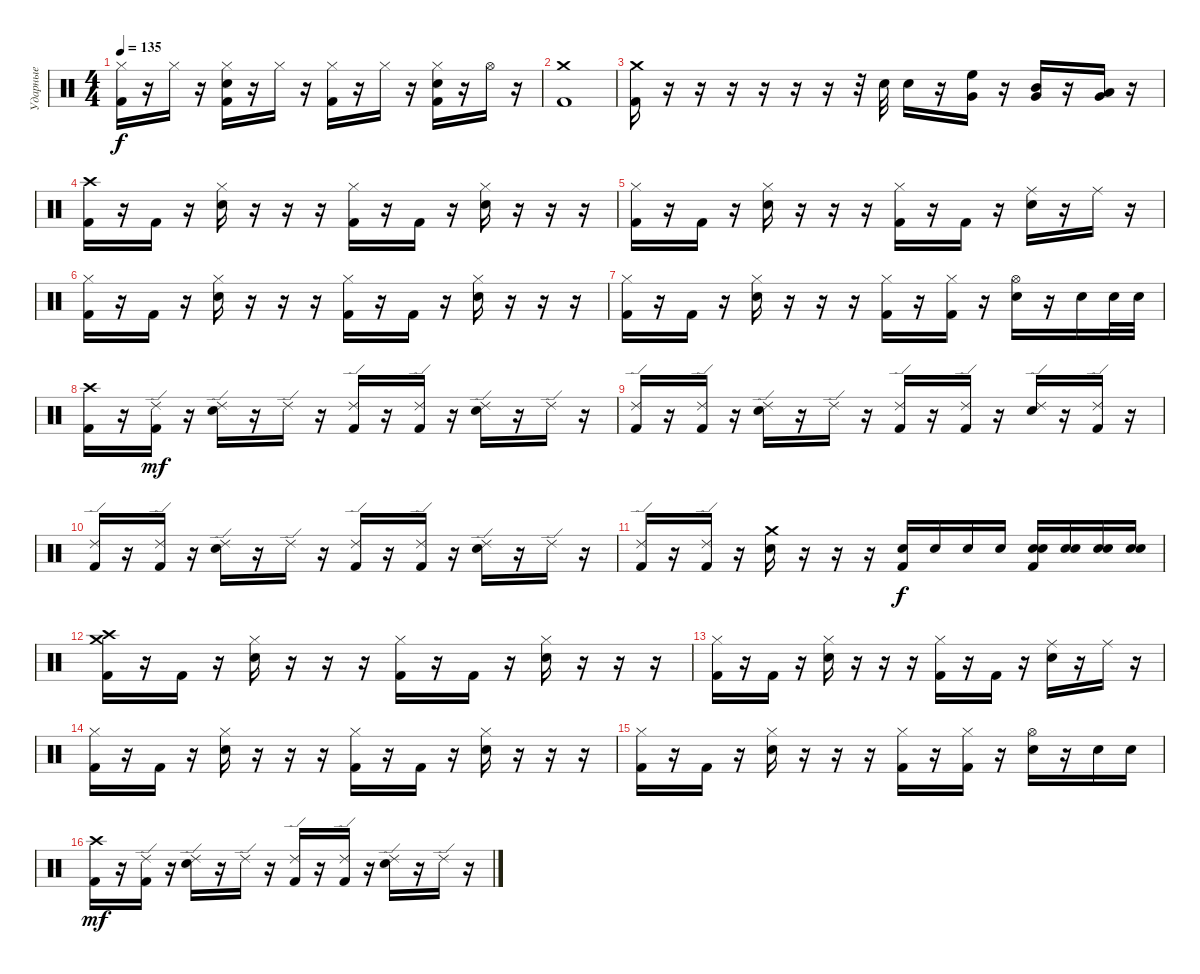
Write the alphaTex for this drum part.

\track ("Ударные" "Ударные") {instrument percussion}
\staff {score}
\articulation defaults
\ts (4 4)
\tempo 135
\clef neutral
\ks c
("Hi-Hat (closed)" "Kick (hit) 2").16{dy f} r.16 "Hi-Hat (closed)".16 r.16 ("Hi-Hat (closed)" "Electric Snare (hit)" "Kick (hit) 2").16 r.16 "Hi-Hat (closed)".16 r.16 ("Hi-Hat (closed)" "Kick (hit) 2").16 r.16 "Hi-Hat (closed)".16 r.16 ("Hi-Hat (closed)" "Electric Snare (hit)" "Kick (hit) 2").16 r.16 "Hi-Hat (open)".16 r.16 |
("Crash medium (hit)" "Kick (hit) 2").1 |
("Crash medium (hit)" "Kick (hit) 2").16 r.16 r.16 r.16 r.16 r.16 r.16 r.32 "Electric Snare (hit)".32 "Electric Snare (hit)".16 r.16 ("High Floor Tom (hit)" "Very Low Tom (hit)").16 r.16 ("Mid Tom (hit)" "Very Low Tom (hit)").16 r.16 ("Low Tom (hit)" "Very Low Tom (hit)").16 r.16 |
("Crash high (hit)" "Kick (hit) 2").16 r.16 "Kick (hit) 2".16 r.16 ("Hi-Hat (closed)" "Electric Snare (hit)").16 r.16 r.16 r.16 ("Hi-Hat (closed)" "Kick (hit) 2").16 r.16 "Kick (hit) 2".16 r.16 ("Hi-Hat (closed)" "Electric Snare (hit)").16 r.16 r.16 r.16 |
("Hi-Hat (closed)" "Kick (hit) 2").16 r.16 "Kick (hit) 2".16 r.16 ("Hi-Hat (closed)" "Electric Snare (hit)").16 r.16 r.16 r.16 ("Hi-Hat (closed)" "Kick (hit) 2").16 r.16 "Kick (hit) 2".16 r.16 ("Ride (middle)" "Electric Snare (hit)").16 r.16 "Ride (middle)".16 r.16 |
("Hi-Hat (closed)" "Kick (hit) 2").16 r.16 "Kick (hit) 2".16 r.16 ("Hi-Hat (closed)" "Electric Snare (hit)").16 r.16 r.16 r.16 ("Hi-Hat (closed)" "Kick (hit) 2").16 r.16 "Kick (hit) 2".16 r.16 ("Hi-Hat (closed)" "Electric Snare (hit)").16 r.16 r.16 r.16 |
("Hi-Hat (closed)" "Kick (hit) 2").16 r.16 "Kick (hit) 2".16 r.16 ("Hi-Hat (closed)" "Electric Snare (hit)").16 r.16 r.16 r.16 ("Hi-Hat (closed)" "Kick (hit) 2").16 r.16 ("Hi-Hat (closed)" "Kick (hit) 2").16 r.16 ("Hi-Hat (open)" "Electric Snare (hit)").16 r.16 "Electric Snare (hit)".16 "Electric Snare (hit)".32 "Electric Snare (hit)".32 |
("Crash high (hit)" "Kick (hit) 2").16 r.16 ("Ride (edge) 2" "Kick (hit) 2").16{dy mf} r.16 ("Ride (edge) 2" "Electric Snare (hit)").16 r.16 "Ride (edge) 2".16 r.16 ("Ride (edge) 2" "Kick (hit) 2").16 r.16 ("Ride (edge) 2" "Kick (hit) 2").16 r.16 ("Ride (edge) 2" "Electric Snare (hit)").16 r.16 "Ride (edge) 2".16 r.16 |
("Ride (edge) 2" "Kick (hit) 2").16 r.16 ("Ride (edge) 2" "Kick (hit) 2").16 r.16 ("Ride (edge) 2" "Electric Snare (hit)").16 r.16 "Ride (edge) 2".16 r.16 ("Ride (edge) 2" "Kick (hit) 2").16 r.16 ("Ride (edge) 2" "Kick (hit) 2").16 r.16 ("Ride (edge) 2" "Electric Snare (hit)").16 r.16 ("Ride (edge) 2" "Kick (hit) 2").16 r.16 |
("Ride (edge) 2" "Kick (hit) 2").16 r.16 ("Ride (edge) 2" "Kick (hit) 2").16 r.16 ("Ride (edge) 2" "Electric Snare (hit)").16 r.16 "Ride (edge) 2".16 r.16 ("Ride (edge) 2" "Kick (hit) 2").16 r.16 ("Ride (edge) 2" "Kick (hit) 2").16 r.16 ("Ride (edge) 2" "Electric Snare (hit)").16 r.16 "Ride (edge) 2".16 r.16 |
("Ride (edge) 2" "Kick (hit) 2").16 r.16 ("Ride (edge) 2" "Kick (hit) 2").16 r.16 ("Crash medium (hit)" "Electric Snare (hit)").16 r.16 r.16 r.16 ("Electric Snare (hit)" "Kick (hit) 2").16{dy f} "Electric Snare (hit)".16 "Electric Snare (hit)".16 "Electric Snare (hit)".16 ("Snare (hit) 2" "Electric Snare (hit)" "Kick (hit) 2").16 ("Snare (hit) 2" "Electric Snare (hit)").16 ("Snare (hit) 2" "Electric Snare (hit)").16 ("Snare (hit) 2" "Electric Snare (hit)").16 |
("Crash high (hit)" "Crash medium (hit)" "Kick (hit) 2").16 r.16 "Kick (hit) 2".16 r.16 ("Hi-Hat (closed)" "Electric Snare (hit)").16 r.16 r.16 r.16 ("Hi-Hat (closed)" "Kick (hit) 2").16 r.16 "Kick (hit) 2".16 r.16 ("Hi-Hat (closed)" "Electric Snare (hit)").16 r.16 r.16 r.16 |
("Hi-Hat (closed)" "Kick (hit) 2").16 r.16 "Kick (hit) 2".16 r.16 ("Hi-Hat (closed)" "Electric Snare (hit)").16 r.16 r.16 r.16 ("Hi-Hat (closed)" "Kick (hit) 2").16 r.16 "Kick (hit) 2".16 r.16 ("Ride (middle)" "Electric Snare (hit)").16 r.16 "Ride (middle)".16 r.16 |
("Hi-Hat (closed)" "Kick (hit) 2").16 r.16 "Kick (hit) 2".16 r.16 ("Hi-Hat (closed)" "Electric Snare (hit)").16 r.16 r.16 r.16 ("Hi-Hat (closed)" "Kick (hit) 2").16 r.16 "Kick (hit) 2".16 r.16 ("Hi-Hat (closed)" "Electric Snare (hit)").16 r.16 r.16 r.16 |
("Hi-Hat (closed)" "Kick (hit) 2").16 r.16 "Kick (hit) 2".16 r.16 ("Hi-Hat (closed)" "Electric Snare (hit)").16 r.16 r.16 r.16 ("Hi-Hat (closed)" "Kick (hit) 2").16 r.16 ("Hi-Hat (closed)" "Kick (hit) 2").16 r.16 ("Hi-Hat (open)" "Electric Snare (hit)").16 r.16 "Snare (hit) 2".16 "Snare (hit) 2".16 |
("Crash high (hit)" "Kick (hit) 2").16{dy mf} r.16 ("Ride (edge) 2" "Kick (hit) 2").16 r.16 ("Ride (edge) 2" "Electric Snare (hit)").16 r.16 "Ride (edge) 2".16 r.16 ("Ride (edge) 2" "Kick (hit) 2").16 r.16 ("Ride (edge) 2" "Kick (hit) 2").16 r.16 ("Ride (edge) 2" "Electric Snare (hit)").16 r.16 "Ride (edge) 2".16 r.16
